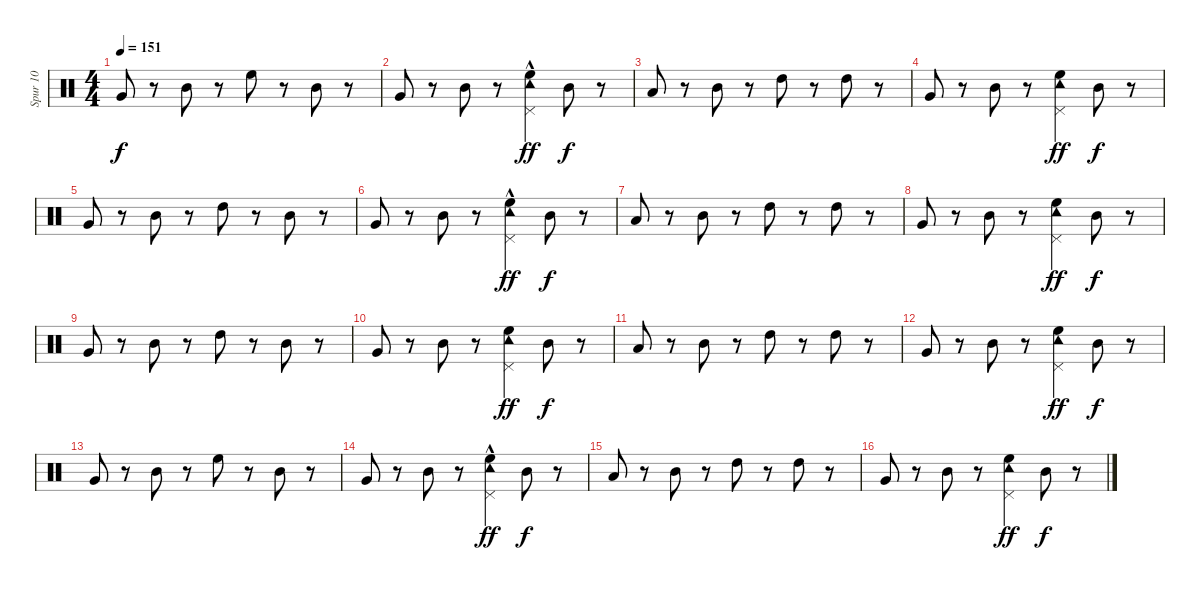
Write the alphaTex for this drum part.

\track ("Spur 10" "Spur 10") {instrument percussion}
\staff {score}
\articulation defaults
\ts (4 4)
\tempo 151
\clef neutral
\ks c "Very Low Tom (hit)".8{dy f}
r.8 "Mid Tom (hit)".8 r.8 "High Floor Tom (hit)".8 r.8 "Mid Tom (hit)".8 r.8 |
"Very Low Tom (hit)".8 r.8 "Mid Tom (hit)".8 r.8 ("Pedal Hi-Hat (hit)" "Tambourine (hit)"{hac} "High Floor Tom (hit)").4{dy ff} "Mid Tom (hit)".8{dy f} r.8 |
"Low Tom (hit)".8 r.8 "Mid Tom (hit)".8 r.8 "High Tom (hit)".8 r.8 "High Tom (hit)".8 r.8 |
"Very Low Tom (hit)".8 r.8 "Mid Tom (hit)".8 r.8 ("Pedal Hi-Hat (hit)" "Tambourine (hit)" "High Floor Tom (hit)").4{dy ff} "Mid Tom (hit)".8{dy f} r.8 |
"Very Low Tom (hit)".8 r.8 "Mid Tom (hit)".8 r.8 "High Tom (hit)".8 r.8 "Mid Tom (hit)".8 r.8 |
"Very Low Tom (hit)".8 r.8 "Mid Tom (hit)".8 r.8 ("Pedal Hi-Hat (hit)" "Tambourine (hit)"{hac} "High Floor Tom (hit)").4{dy ff} "Mid Tom (hit)".8{dy f} r.8 |
"Low Tom (hit)".8 r.8 "Mid Tom (hit)".8 r.8 "High Tom (hit)".8 r.8 "High Tom (hit)".8 r.8 |
"Very Low Tom (hit)".8 r.8 "Mid Tom (hit)".8 r.8 ("Pedal Hi-Hat (hit)" "Tambourine (hit)" "High Floor Tom (hit)").4{dy ff} "Mid Tom (hit)".8{dy f} r.8 |
"Very Low Tom (hit)".8 r.8 "Mid Tom (hit)".8 r.8 "High Tom (hit)".8 r.8 "Mid Tom (hit)".8 r.8 |
"Very Low Tom (hit)".8 r.8 "Mid Tom (hit)".8 r.8 ("Pedal Hi-Hat (hit)" "Tambourine (hit)" "High Floor Tom (hit)").4{dy ff} "Mid Tom (hit)".8{dy f} r.8 |
"Low Tom (hit)".8 r.8 "Mid Tom (hit)".8 r.8 "High Tom (hit)".8 r.8 "High Tom (hit)".8 r.8 |
"Very Low Tom (hit)".8 r.8 "Mid Tom (hit)".8 r.8 ("Tambourine (hit)" "Pedal Hi-Hat (hit)" "High Floor Tom (hit)").4{dy ff} "Mid Tom (hit)".8{dy f} r.8 |
"Very Low Tom (hit)".8 r.8 "Mid Tom (hit)".8 r.8 "High Floor Tom (hit)".8 r.8 "Mid Tom (hit)".8 r.8 |
"Very Low Tom (hit)".8 r.8 "Mid Tom (hit)".8 r.8 ("Pedal Hi-Hat (hit)" "Tambourine (hit)"{hac} "High Floor Tom (hit)").4{dy ff} "Mid Tom (hit)".8{dy f} r.8 |
"Low Tom (hit)".8 r.8 "Mid Tom (hit)".8 r.8 "High Tom (hit)".8 r.8 "High Tom (hit)".8 r.8 |
"Very Low Tom (hit)".8 r.8 "Mid Tom (hit)".8 r.8 ("Pedal Hi-Hat (hit)" "Tambourine (hit)" "High Floor Tom (hit)").4{dy ff} "Mid Tom (hit)".8{dy f} r.8
